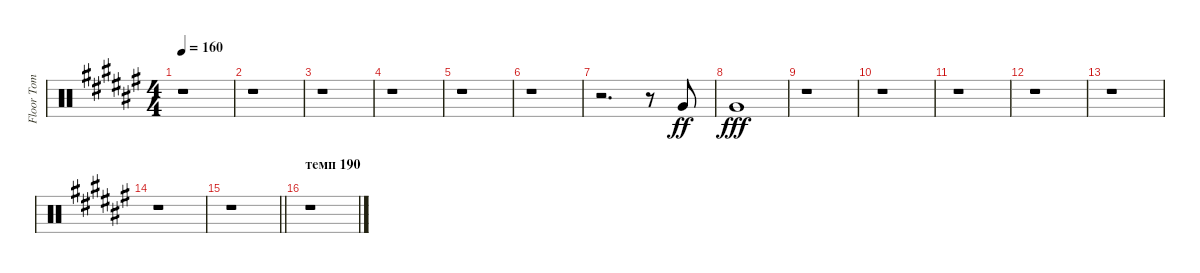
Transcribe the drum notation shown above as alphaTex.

\track ("Floor Tom" "Floor Tom") {instrument percussion}
\staff {score}
\articulation defaults
\ts (4 4)
\tempo 160
\clef neutral
\ks d#minor
r.1{dy ff} |
r.1 |
r.1 |
r.1 |
r.1 |
r.1 |
r.2{d} r.8 "Very Low Tom (hit)".8 |
"Very Low Tom (hit)".1{dy fff} |
r.1 |
r.1 |
r.1 |
r.1 |
r.1 |
r.1 |
\barLineRight lightlight
r.1 |
\section ("" "темп 190")
r.1
